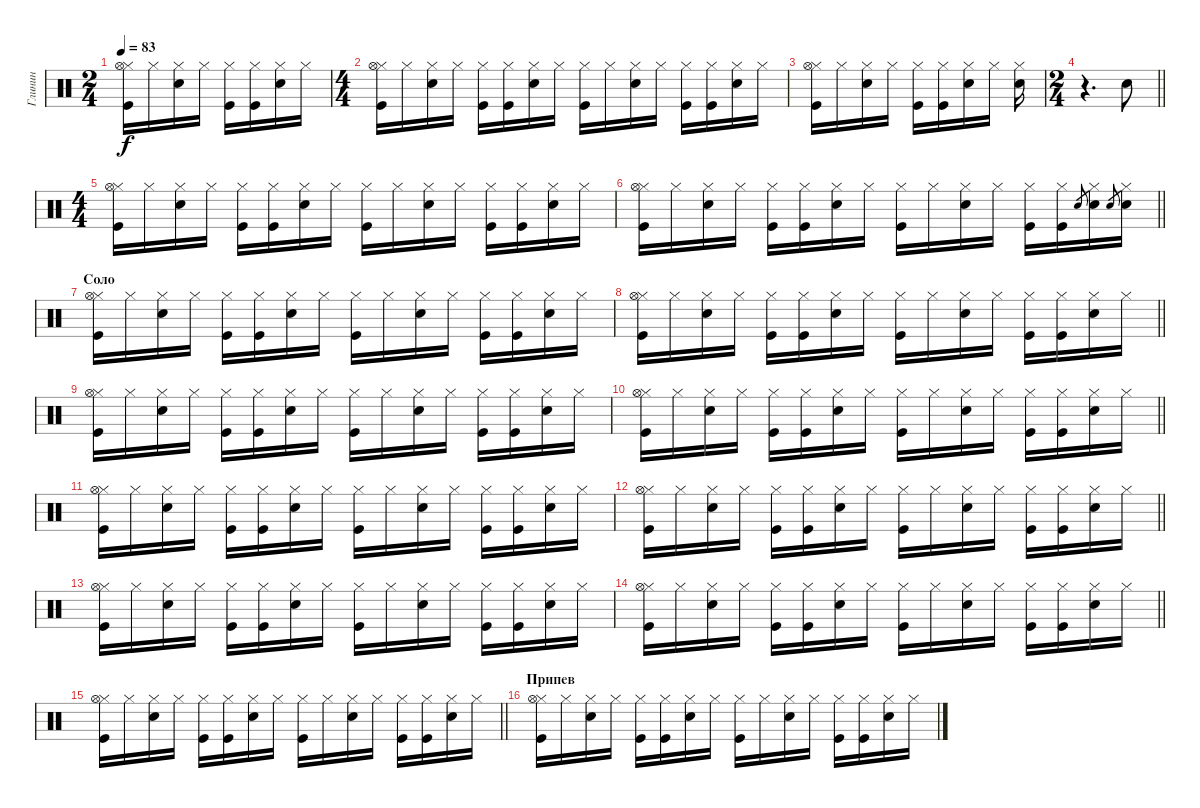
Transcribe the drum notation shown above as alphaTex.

\track ("Глинин" "Глинин") {instrument percussion}
\staff {score}
\articulation defaults
\ts (2 4)
\tempo 83
\clef neutral
\ks c
("Hi-Hat (closed)" "Kick (hit)" "Hi-Hat (open)").16{dy f} "Hi-Hat (closed)".16 ("Hi-Hat (closed)" "Snare (hit) 2").16 "Hi-Hat (closed)".16 ("Hi-Hat (closed)" "Kick (hit)").16 ("Hi-Hat (closed)" "Kick (hit)").16 ("Hi-Hat (closed)" "Snare (hit) 2").16 "Hi-Hat (closed)".16 |
\ts (4 4)
("Hi-Hat (closed)" "Kick (hit)" "Hi-Hat (open)").16 "Hi-Hat (closed)".16 ("Hi-Hat (closed)" "Snare (hit) 2").16 "Hi-Hat (closed)".16 ("Hi-Hat (closed)" "Kick (hit)").16 ("Hi-Hat (closed)" "Kick (hit)").16 ("Hi-Hat (closed)" "Snare (hit) 2").16 "Hi-Hat (closed)".16 ("Hi-Hat (closed)" "Kick (hit)").16 "Hi-Hat (closed)".16 ("Hi-Hat (closed)" "Snare (hit) 2").16 "Hi-Hat (closed)".16 ("Hi-Hat (closed)" "Kick (hit)").16 ("Hi-Hat (closed)" "Kick (hit)").16 ("Hi-Hat (closed)" "Snare (hit) 2").16 "Hi-Hat (closed)".16 |
("Hi-Hat (closed)" "Kick (hit)" "Hi-Hat (open)").16 "Hi-Hat (closed)".16 ("Hi-Hat (closed)" "Snare (hit) 2").16 "Hi-Hat (closed)".16 ("Hi-Hat (closed)" "Kick (hit)").16 ("Hi-Hat (closed)" "Kick (hit)").16 ("Hi-Hat (closed)" "Snare (hit) 2").16 "Hi-Hat (closed)".16 ("Hi-Hat (closed)" "Snare (hit) 2").16 |
\ts (2 4)
\barLineRight lightlight
r.4{d} "Snare (hit) 2".8 |
\ts (4 4)
("Hi-Hat (closed)" "Kick (hit)" "Hi-Hat (open)").16 "Hi-Hat (closed)".16 ("Hi-Hat (closed)" "Snare (hit) 2").16 "Hi-Hat (closed)".16 ("Hi-Hat (closed)" "Kick (hit)").16 ("Hi-Hat (closed)" "Kick (hit)").16 ("Hi-Hat (closed)" "Snare (hit) 2").16 "Hi-Hat (closed)".16 ("Hi-Hat (closed)" "Kick (hit)").16 "Hi-Hat (closed)".16 ("Hi-Hat (closed)" "Snare (hit) 2").16 "Hi-Hat (closed)".16 ("Hi-Hat (closed)" "Kick (hit)").16 ("Hi-Hat (closed)" "Kick (hit)").16 ("Hi-Hat (closed)" "Snare (hit) 2").16 "Hi-Hat (closed)".16 |
\barLineRight lightlight
("Hi-Hat (closed)" "Kick (hit)" "Hi-Hat (open)").16 "Hi-Hat (closed)".16 ("Hi-Hat (closed)" "Snare (hit) 2").16 "Hi-Hat (closed)".16 ("Hi-Hat (closed)" "Kick (hit)").16 ("Hi-Hat (closed)" "Kick (hit)").16 ("Hi-Hat (closed)" "Snare (hit) 2").16 "Hi-Hat (closed)".16 ("Hi-Hat (closed)" "Kick (hit)").16 "Hi-Hat (closed)".16 ("Hi-Hat (closed)" "Snare (hit) 2").16 "Hi-Hat (closed)".16 ("Hi-Hat (closed)" "Kick (hit)").16 ("Hi-Hat (closed)" "Kick (hit)").16 "Snare (hit) 2".8{gr} ("Hi-Hat (closed)" "Snare (hit) 2").16 "Snare (hit) 2".8{gr} ("Hi-Hat (closed)" "Snare (hit) 2").16 |
\section ("" "Соло")
("Hi-Hat (closed)" "Kick (hit)" "Hi-Hat (open)").16 "Hi-Hat (closed)".16 ("Hi-Hat (closed)" "Snare (hit) 2").16 "Hi-Hat (closed)".16 ("Hi-Hat (closed)" "Kick (hit)").16 ("Hi-Hat (closed)" "Kick (hit)").16 ("Hi-Hat (closed)" "Snare (hit) 2").16 "Hi-Hat (closed)".16 ("Hi-Hat (closed)" "Kick (hit)").16 "Hi-Hat (closed)".16 ("Hi-Hat (closed)" "Snare (hit) 2").16 "Hi-Hat (closed)".16 ("Hi-Hat (closed)" "Kick (hit)").16 ("Hi-Hat (closed)" "Kick (hit)").16 ("Hi-Hat (closed)" "Snare (hit) 2").16 "Hi-Hat (closed)".16 |
\barLineRight lightlight
("Hi-Hat (closed)" "Kick (hit)" "Hi-Hat (open)").16 "Hi-Hat (closed)".16 ("Hi-Hat (closed)" "Snare (hit) 2").16 "Hi-Hat (closed)".16 ("Hi-Hat (closed)" "Kick (hit)").16 ("Hi-Hat (closed)" "Kick (hit)").16 ("Hi-Hat (closed)" "Snare (hit) 2").16 "Hi-Hat (closed)".16 ("Hi-Hat (closed)" "Kick (hit)").16 "Hi-Hat (closed)".16 ("Hi-Hat (closed)" "Snare (hit) 2").16 "Hi-Hat (closed)".16 ("Hi-Hat (closed)" "Kick (hit)").16 ("Hi-Hat (closed)" "Kick (hit)").16 ("Hi-Hat (closed)" "Snare (hit) 2").16 "Hi-Hat (closed)".16 |
("Hi-Hat (closed)" "Kick (hit)" "Hi-Hat (open)").16 "Hi-Hat (closed)".16 ("Hi-Hat (closed)" "Snare (hit) 2").16 "Hi-Hat (closed)".16 ("Hi-Hat (closed)" "Kick (hit)").16 ("Hi-Hat (closed)" "Kick (hit)").16 ("Hi-Hat (closed)" "Snare (hit) 2").16 "Hi-Hat (closed)".16 ("Hi-Hat (closed)" "Kick (hit)").16 "Hi-Hat (closed)".16 ("Hi-Hat (closed)" "Snare (hit) 2").16 "Hi-Hat (closed)".16 ("Hi-Hat (closed)" "Kick (hit)").16 ("Hi-Hat (closed)" "Kick (hit)").16 ("Hi-Hat (closed)" "Snare (hit) 2").16 "Hi-Hat (closed)".16 |
\barLineRight lightlight
("Hi-Hat (closed)" "Kick (hit)" "Hi-Hat (open)").16 "Hi-Hat (closed)".16 ("Hi-Hat (closed)" "Snare (hit) 2").16 "Hi-Hat (closed)".16 ("Hi-Hat (closed)" "Kick (hit)").16 ("Hi-Hat (closed)" "Kick (hit)").16 ("Hi-Hat (closed)" "Snare (hit) 2").16 "Hi-Hat (closed)".16 ("Hi-Hat (closed)" "Kick (hit)").16 "Hi-Hat (closed)".16 ("Hi-Hat (closed)" "Snare (hit) 2").16 "Hi-Hat (closed)".16 ("Hi-Hat (closed)" "Kick (hit)").16 ("Hi-Hat (closed)" "Kick (hit)").16 ("Hi-Hat (closed)" "Snare (hit) 2").16 "Hi-Hat (closed)".16 |
("Hi-Hat (closed)" "Kick (hit)" "Hi-Hat (open)").16 "Hi-Hat (closed)".16 ("Hi-Hat (closed)" "Snare (hit) 2").16 "Hi-Hat (closed)".16 ("Hi-Hat (closed)" "Kick (hit)").16 ("Hi-Hat (closed)" "Kick (hit)").16 ("Hi-Hat (closed)" "Snare (hit) 2").16 "Hi-Hat (closed)".16 ("Hi-Hat (closed)" "Kick (hit)").16 "Hi-Hat (closed)".16 ("Hi-Hat (closed)" "Snare (hit) 2").16 "Hi-Hat (closed)".16 ("Hi-Hat (closed)" "Kick (hit)").16 ("Hi-Hat (closed)" "Kick (hit)").16 ("Hi-Hat (closed)" "Snare (hit) 2").16 "Hi-Hat (closed)".16 |
\barLineRight lightlight
("Hi-Hat (closed)" "Kick (hit)" "Hi-Hat (open)").16 "Hi-Hat (closed)".16 ("Hi-Hat (closed)" "Snare (hit) 2").16 "Hi-Hat (closed)".16 ("Hi-Hat (closed)" "Kick (hit)").16 ("Hi-Hat (closed)" "Kick (hit)").16 ("Hi-Hat (closed)" "Snare (hit) 2").16 "Hi-Hat (closed)".16 ("Hi-Hat (closed)" "Kick (hit)").16 "Hi-Hat (closed)".16 ("Hi-Hat (closed)" "Snare (hit) 2").16 "Hi-Hat (closed)".16 ("Hi-Hat (closed)" "Kick (hit)").16 ("Hi-Hat (closed)" "Kick (hit)").16 ("Hi-Hat (closed)" "Snare (hit) 2").16 "Hi-Hat (closed)".16 |
("Hi-Hat (closed)" "Kick (hit)" "Hi-Hat (open)").16 "Hi-Hat (closed)".16 ("Hi-Hat (closed)" "Snare (hit) 2").16 "Hi-Hat (closed)".16 ("Hi-Hat (closed)" "Kick (hit)").16 ("Hi-Hat (closed)" "Kick (hit)").16 ("Hi-Hat (closed)" "Snare (hit) 2").16 "Hi-Hat (closed)".16 ("Hi-Hat (closed)" "Kick (hit)").16 "Hi-Hat (closed)".16 ("Hi-Hat (closed)" "Snare (hit) 2").16 "Hi-Hat (closed)".16 ("Hi-Hat (closed)" "Kick (hit)").16 ("Hi-Hat (closed)" "Kick (hit)").16 ("Hi-Hat (closed)" "Snare (hit) 2").16 "Hi-Hat (closed)".16 |
\barLineRight lightlight
("Hi-Hat (closed)" "Kick (hit)" "Hi-Hat (open)").16 "Hi-Hat (closed)".16 ("Hi-Hat (closed)" "Snare (hit) 2").16 "Hi-Hat (closed)".16 ("Hi-Hat (closed)" "Kick (hit)").16 ("Hi-Hat (closed)" "Kick (hit)").16 ("Hi-Hat (closed)" "Snare (hit) 2").16 "Hi-Hat (closed)".16 ("Hi-Hat (closed)" "Kick (hit)").16 "Hi-Hat (closed)".16 ("Hi-Hat (closed)" "Snare (hit) 2").16 "Hi-Hat (closed)".16 ("Hi-Hat (closed)" "Kick (hit)").16 ("Hi-Hat (closed)" "Kick (hit)").16 ("Hi-Hat (closed)" "Snare (hit) 2").16 "Hi-Hat (closed)".16 |
\barLineRight lightlight
("Hi-Hat (closed)" "Kick (hit)" "Hi-Hat (open)").16 "Hi-Hat (closed)".16 ("Hi-Hat (closed)" "Snare (hit) 2").16 "Hi-Hat (closed)".16 ("Hi-Hat (closed)" "Kick (hit)").16 ("Hi-Hat (closed)" "Kick (hit)").16 ("Hi-Hat (closed)" "Snare (hit) 2").16 "Hi-Hat (closed)".16 ("Hi-Hat (closed)" "Kick (hit)").16 "Hi-Hat (closed)".16 ("Hi-Hat (closed)" "Snare (hit) 2").16 "Hi-Hat (closed)".16 ("Hi-Hat (closed)" "Kick (hit)").16 ("Hi-Hat (closed)" "Kick (hit)").16 ("Hi-Hat (closed)" "Snare (hit) 2").16 "Hi-Hat (closed)".16 |
\section ("" "Припев")
("Hi-Hat (closed)" "Kick (hit)" "Hi-Hat (open)").16 "Hi-Hat (closed)".16 ("Hi-Hat (closed)" "Snare (hit) 2").16 "Hi-Hat (closed)".16 ("Hi-Hat (closed)" "Kick (hit)").16 ("Hi-Hat (closed)" "Kick (hit)").16 ("Hi-Hat (closed)" "Snare (hit) 2").16 "Hi-Hat (closed)".16 ("Hi-Hat (closed)" "Kick (hit)").16 "Hi-Hat (closed)".16 ("Hi-Hat (closed)" "Snare (hit) 2").16 "Hi-Hat (closed)".16 ("Hi-Hat (closed)" "Kick (hit)").16 ("Hi-Hat (closed)" "Kick (hit)").16 ("Hi-Hat (closed)" "Snare (hit) 2").16 "Hi-Hat (closed)".16
